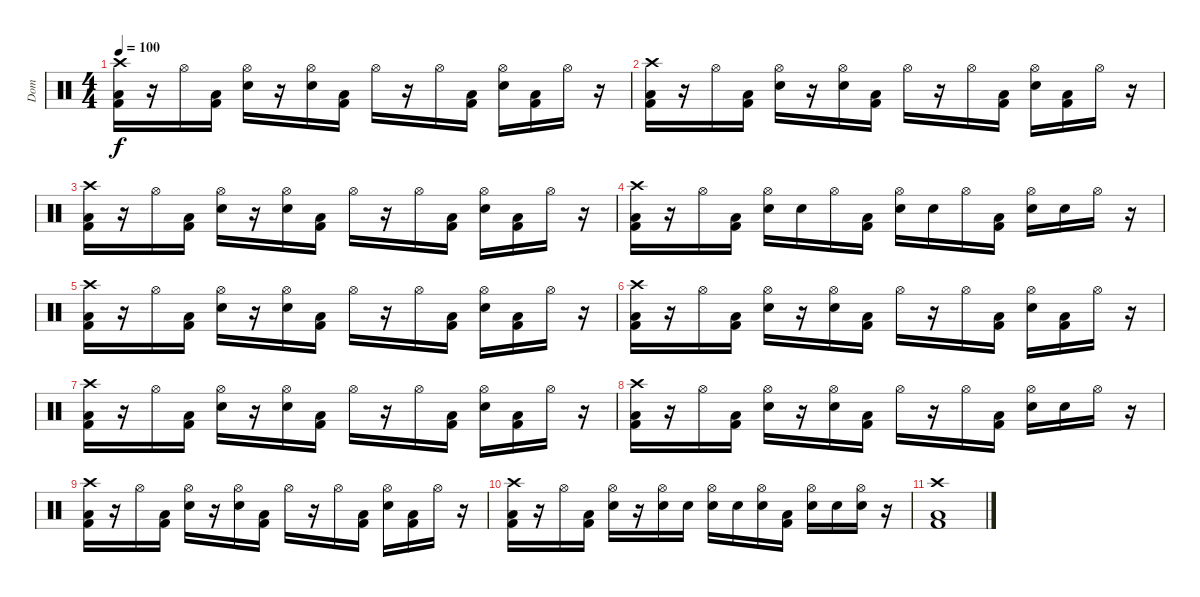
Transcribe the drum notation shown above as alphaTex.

\track ("Dom" "Dom") {instrument percussion}
\staff {score}
\articulation defaults
\ts (4 4)
\tempo 100
\clef neutral
\ks c
("Crash high (hit)" "Low Floor Tom (hit)" "Kick (hit) 2").16{dy f} r.16 "Hi-Hat (open)".16 ("Low Floor Tom (hit)" "Kick (hit) 2").16 ("Hi-Hat (open)" "Electric Snare (hit)").16 r.16 ("Hi-Hat (open)" "Electric Snare (hit)").16 ("Low Floor Tom (hit)" "Kick (hit) 2").16 "Hi-Hat (open)".16 r.16 "Hi-Hat (open)".16 ("Low Floor Tom (hit)" "Kick (hit) 2").16 ("Hi-Hat (open)" "Electric Snare (hit)").16 ("Low Floor Tom (hit)" "Kick (hit) 2").16 "Hi-Hat (open)".16 r.16 |
("Crash high (hit)" "Low Floor Tom (hit)" "Kick (hit) 2").16 r.16 "Hi-Hat (open)".16 ("Low Floor Tom (hit)" "Kick (hit) 2").16 ("Hi-Hat (open)" "Electric Snare (hit)").16 r.16 ("Hi-Hat (open)" "Electric Snare (hit)").16 ("Low Floor Tom (hit)" "Kick (hit) 2").16 "Hi-Hat (open)".16 r.16 "Hi-Hat (open)".16 ("Low Floor Tom (hit)" "Kick (hit) 2").16 ("Hi-Hat (open)" "Electric Snare (hit)").16 ("Low Floor Tom (hit)" "Kick (hit) 2").16 "Hi-Hat (open)".16 r.16 |
("Crash high (hit)" "Low Floor Tom (hit)" "Kick (hit) 2").16 r.16 "Hi-Hat (open)".16 ("Low Floor Tom (hit)" "Kick (hit) 2").16 ("Hi-Hat (open)" "Electric Snare (hit)").16 r.16 ("Hi-Hat (open)" "Electric Snare (hit)").16 ("Low Floor Tom (hit)" "Kick (hit) 2").16 "Hi-Hat (open)".16 r.16 "Hi-Hat (open)".16 ("Low Floor Tom (hit)" "Kick (hit) 2").16 ("Hi-Hat (open)" "Electric Snare (hit)").16 ("Low Floor Tom (hit)" "Kick (hit) 2").16 "Hi-Hat (open)".16 r.16 |
("Crash high (hit)" "Low Floor Tom (hit)" "Kick (hit) 2").16 r.16 "Hi-Hat (open)".16 ("Low Floor Tom (hit)" "Kick (hit) 2").16 ("Hi-Hat (open)" "Electric Snare (hit)").16 "Electric Snare (hit)".16 "Hi-Hat (open)".16 ("Low Floor Tom (hit)" "Kick (hit) 2").16 ("Hi-Hat (open)" "Electric Snare (hit)").16 "Electric Snare (hit)".16 "Hi-Hat (open)".16 ("Low Floor Tom (hit)" "Kick (hit) 2").16 ("Hi-Hat (open)" "Electric Snare (hit)").16 "Electric Snare (hit)".16 "Hi-Hat (open)".16 r.16 |
("Crash high (hit)" "Low Floor Tom (hit)" "Kick (hit) 2").16 r.16 "Hi-Hat (open)".16 ("Low Floor Tom (hit)" "Kick (hit) 2").16 ("Hi-Hat (open)" "Electric Snare (hit)").16 r.16 ("Hi-Hat (open)" "Electric Snare (hit)").16 ("Low Floor Tom (hit)" "Kick (hit) 2").16 "Hi-Hat (open)".16 r.16 "Hi-Hat (open)".16 ("Low Floor Tom (hit)" "Kick (hit) 2").16 ("Hi-Hat (open)" "Electric Snare (hit)").16 ("Low Floor Tom (hit)" "Kick (hit) 2").16 "Hi-Hat (open)".16 r.16 |
("Crash high (hit)" "Low Floor Tom (hit)" "Kick (hit) 2").16 r.16 "Hi-Hat (open)".16 ("Low Floor Tom (hit)" "Kick (hit) 2").16 ("Hi-Hat (open)" "Electric Snare (hit)").16 r.16 ("Hi-Hat (open)" "Electric Snare (hit)").16 ("Low Floor Tom (hit)" "Kick (hit) 2").16 "Hi-Hat (open)".16 r.16 "Hi-Hat (open)".16 ("Low Floor Tom (hit)" "Kick (hit) 2").16 ("Hi-Hat (open)" "Electric Snare (hit)").16 ("Low Floor Tom (hit)" "Kick (hit) 2").16 "Hi-Hat (open)".16 r.16 |
("Crash high (hit)" "Low Floor Tom (hit)" "Kick (hit) 2").16 r.16 "Hi-Hat (open)".16 ("Low Floor Tom (hit)" "Kick (hit) 2").16 ("Hi-Hat (open)" "Electric Snare (hit)").16 r.16 ("Hi-Hat (open)" "Electric Snare (hit)").16 ("Low Floor Tom (hit)" "Kick (hit) 2").16 "Hi-Hat (open)".16 r.16 "Hi-Hat (open)".16 ("Low Floor Tom (hit)" "Kick (hit) 2").16 ("Hi-Hat (open)" "Electric Snare (hit)").16 ("Low Floor Tom (hit)" "Kick (hit) 2").16 "Hi-Hat (open)".16 r.16 |
("Crash high (hit)" "Low Floor Tom (hit)" "Kick (hit) 2").16 r.16 "Hi-Hat (open)".16 ("Low Floor Tom (hit)" "Kick (hit) 2").16 ("Hi-Hat (open)" "Electric Snare (hit)").16 r.16 ("Hi-Hat (open)" "Electric Snare (hit)").16 ("Low Floor Tom (hit)" "Kick (hit) 2").16 "Hi-Hat (open)".16 r.16 "Hi-Hat (open)".16 ("Low Floor Tom (hit)" "Kick (hit) 2").16 ("Hi-Hat (open)" "Electric Snare (hit)").16 "Electric Snare (hit)".16 "Hi-Hat (open)".16 r.16 |
("Crash high (hit)" "Low Floor Tom (hit)" "Kick (hit) 2").16 r.16 "Hi-Hat (open)".16 ("Low Floor Tom (hit)" "Kick (hit) 2").16 ("Hi-Hat (open)" "Electric Snare (hit)").16 r.16 ("Hi-Hat (open)" "Electric Snare (hit)").16 ("Low Floor Tom (hit)" "Kick (hit) 2").16 "Hi-Hat (open)".16 r.16 "Hi-Hat (open)".16 ("Low Floor Tom (hit)" "Kick (hit) 2").16 ("Hi-Hat (open)" "Electric Snare (hit)").16 ("Low Floor Tom (hit)" "Kick (hit) 2").16 "Hi-Hat (open)".16 r.16 |
("Crash high (hit)" "Low Floor Tom (hit)" "Kick (hit) 2").16 r.16 "Hi-Hat (open)".16 ("Low Floor Tom (hit)" "Kick (hit) 2").16 ("Hi-Hat (open)" "Electric Snare (hit)").16 r.16 ("Hi-Hat (open)" "Electric Snare (hit)").16 "Electric Snare (hit)".16 ("Hi-Hat (open)" "Electric Snare (hit)").16 "Electric Snare (hit)".16 ("Hi-Hat (open)" "Electric Snare (hit)").16 ("Low Floor Tom (hit)" "Kick (hit) 2").16 ("Hi-Hat (open)" "Electric Snare (hit)").16 "Electric Snare (hit)".16 ("Hi-Hat (open)" "Electric Snare (hit)").16 r.16 |
("Crash high (hit)" "Low Floor Tom (hit)" "Kick (hit) 2").1
